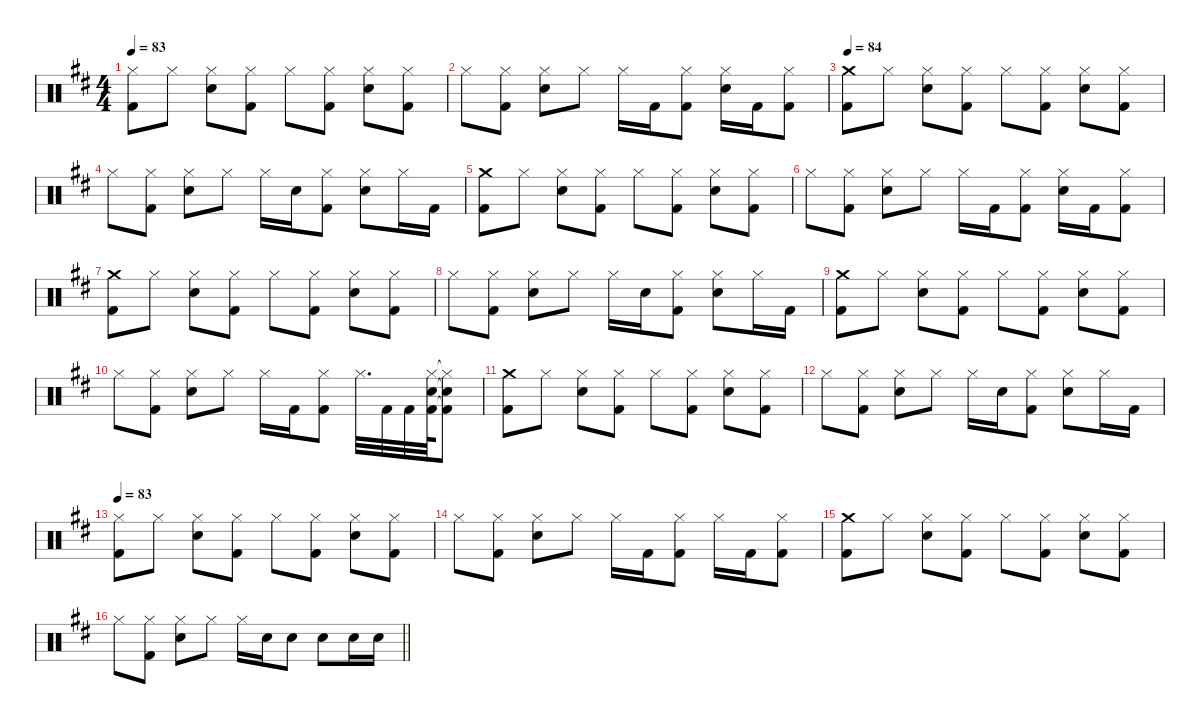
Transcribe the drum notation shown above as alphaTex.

\defaultSystemsLayout 4
\hideDynamics
\bracketExtendMode nobrackets
\singleTrackTrackNamePolicy hidden
\multiTrackTrackNamePolicy hidden
\otherSystemsTrackNameOrientation horizontal
\track ("Drumkit" "Drums") {defaultSystemsLayout 4 instrument percussion}
\staff {score}
\articulation defaults
\ts (4 4)
\tempo 83
\clef neutral
\ks d
("Kick (hit) 2"{acc forcenatural} "Hi-Hat (closed)"{acc forcenatural}).8{dy f beam Down} "Hi-Hat (closed)"{acc forcenatural}.8{beam Down} ("Snare (hit) 2"{acc forcenatural} "Hi-Hat (closed)"{acc forcenatural}).8{beam Down} ("Kick (hit) 2"{acc forcenatural} "Hi-Hat (closed)"{acc forcenatural}).8{beam Down} "Hi-Hat (closed)"{acc forcenatural}.8{beam Down} ("Kick (hit) 2"{acc forcenatural} "Hi-Hat (closed)"{acc forcenatural}).8{beam Down} ("Snare (hit) 2"{acc forcenatural} "Hi-Hat (closed)"{acc forcenatural}).8{beam Down} ("Kick (hit) 2"{acc forcenatural} "Hi-Hat (closed)"{acc forcenatural}).8{beam Down} |
"Hi-Hat (closed)"{acc forcenatural}.8{beam Down} ("Kick (hit) 2"{acc forcenatural} "Hi-Hat (closed)"{acc forcenatural}).8{beam Down} ("Snare (hit) 2"{acc forcenatural} "Hi-Hat (closed)"{acc forcenatural}).8{beam Down} "Hi-Hat (closed)"{acc forcenatural}.8{beam Down} "Hi-Hat (closed)"{acc forcenatural}.16{beam Down} "Kick (hit) 2"{acc forcenatural}.16{beam Down} ("Kick (hit) 2"{acc forcenatural} "Hi-Hat (closed)"{acc forcenatural}).8{beam Down} ("Snare (hit) 2"{acc forcenatural} "Hi-Hat (closed)"{acc forcenatural}).16{beam Down} "Kick (hit) 2"{acc forcenatural}.16{beam Down} ("Kick (hit) 2"{acc forcenatural} "Hi-Hat (closed)"{acc forcenatural}).8{beam Down} |
\tempo 84
("Kick (hit) 2"{acc forcenatural} "Crash medium (hit)"{acc forcenatural}).8{beam Down} "Hi-Hat (closed)"{acc forcenatural}.8{beam Down} ("Snare (hit) 2"{acc forcenatural} "Hi-Hat (closed)"{acc forcenatural}).8{beam Down} ("Kick (hit) 2"{acc forcenatural} "Hi-Hat (closed)"{acc forcenatural}).8{beam Down} "Hi-Hat (closed)"{acc forcenatural}.8{beam Down} ("Kick (hit) 2"{acc forcenatural} "Hi-Hat (closed)"{acc forcenatural}).8{beam Down} ("Snare (hit) 2"{acc forcenatural} "Hi-Hat (closed)"{acc forcenatural}).8{beam Down} ("Kick (hit) 2"{acc forcenatural} "Hi-Hat (closed)"{acc forcenatural}).8{beam Down} |
"Hi-Hat (closed)"{acc forcenatural}.8{beam Down} ("Kick (hit) 2"{acc forcenatural} "Hi-Hat (closed)"{acc forcenatural}).8{beam Down} ("Snare (hit) 2"{acc forcenatural} "Hi-Hat (closed)"{acc forcenatural}).8{beam Down} "Hi-Hat (closed)"{acc forcenatural}.8{beam Down} "Hi-Hat (closed)"{acc forcenatural}.16{beam Down} "Snare (hit) 2"{acc forcenatural}.16{beam Down} ("Kick (hit) 2"{acc forcenatural} "Hi-Hat (closed)"{acc forcenatural}).8{beam Down} ("Snare (hit) 2"{acc forcenatural} "Hi-Hat (closed)"{acc forcenatural}).8{beam Down} "Hi-Hat (closed)"{acc forcenatural}.16{beam Down} "Kick (hit) 2"{acc forcenatural}.16{beam Down} |
("Kick (hit) 2"{acc forcenatural} "Crash medium (hit)"{acc forcenatural}).8{beam Down} "Hi-Hat (closed)"{acc forcenatural}.8{beam Down} ("Snare (hit) 2"{acc forcenatural} "Hi-Hat (closed)"{acc forcenatural}).8{beam Down} ("Kick (hit) 2"{acc forcenatural} "Hi-Hat (closed)"{acc forcenatural}).8{beam Down} "Hi-Hat (closed)"{acc forcenatural}.8{beam Down} ("Kick (hit) 2"{acc forcenatural} "Hi-Hat (closed)"{acc forcenatural}).8{beam Down} ("Snare (hit) 2"{acc forcenatural} "Hi-Hat (closed)"{acc forcenatural}).8{beam Down} ("Kick (hit) 2"{acc forcenatural} "Hi-Hat (closed)"{acc forcenatural}).8{beam Down} |
"Hi-Hat (closed)"{acc forcenatural}.8{beam Down} ("Kick (hit) 2"{acc forcenatural} "Hi-Hat (closed)"{acc forcenatural}).8{beam Down} ("Snare (hit) 2"{acc forcenatural} "Hi-Hat (closed)"{acc forcenatural}).8{beam Down} "Hi-Hat (closed)"{acc forcenatural}.8{beam Down} "Hi-Hat (closed)"{acc forcenatural}.16{beam Down} "Kick (hit) 2"{acc forcenatural}.16{beam Down} ("Kick (hit) 2"{acc forcenatural} "Hi-Hat (closed)"{acc forcenatural}).8{beam Down} ("Snare (hit) 2"{acc forcenatural} "Hi-Hat (closed)"{acc forcenatural}).16{beam Down} "Kick (hit) 2"{acc forcenatural}.16{beam Down} ("Kick (hit) 2"{acc forcenatural} "Hi-Hat (closed)"{acc forcenatural}).8{beam Down} |
("Kick (hit) 2"{acc forcenatural} "Crash medium (hit)"{acc forcenatural}).8{beam Down} "Hi-Hat (closed)"{acc forcenatural}.8{beam Down} ("Snare (hit) 2"{acc forcenatural} "Hi-Hat (closed)"{acc forcenatural}).8{beam Down} ("Kick (hit) 2"{acc forcenatural} "Hi-Hat (closed)"{acc forcenatural}).8{beam Down} "Hi-Hat (closed)"{acc forcenatural}.8{beam Down} ("Kick (hit) 2"{acc forcenatural} "Hi-Hat (closed)"{acc forcenatural}).8{beam Down} ("Snare (hit) 2"{acc forcenatural} "Hi-Hat (closed)"{acc forcenatural}).8{beam Down} ("Kick (hit) 2"{acc forcenatural} "Hi-Hat (closed)"{acc forcenatural}).8{beam Down} |
"Hi-Hat (closed)"{acc forcenatural}.8{beam Down} ("Kick (hit) 2"{acc forcenatural} "Hi-Hat (closed)"{acc forcenatural}).8{beam Down} ("Snare (hit) 2"{acc forcenatural} "Hi-Hat (closed)"{acc forcenatural}).8{beam Down} "Hi-Hat (closed)"{acc forcenatural}.8{beam Down} "Hi-Hat (closed)"{acc forcenatural}.16{beam Down} "Snare (hit) 2"{acc forcenatural}.16{beam Down} ("Kick (hit) 2"{acc forcenatural} "Hi-Hat (closed)"{acc forcenatural}).8{beam Down} ("Snare (hit) 2"{acc forcenatural} "Hi-Hat (closed)"{acc forcenatural}).8{beam Down} "Hi-Hat (closed)"{acc forcenatural}.16{beam Down} "Kick (hit) 2"{acc forcenatural}.16{beam Down} |
("Kick (hit) 2"{acc forcenatural} "Crash medium (hit)"{acc forcenatural}).8{beam Down} "Hi-Hat (closed)"{acc forcenatural}.8{beam Down} ("Snare (hit) 2"{acc forcenatural} "Hi-Hat (closed)"{acc forcenatural}).8{beam Down} ("Kick (hit) 2"{acc forcenatural} "Hi-Hat (closed)"{acc forcenatural}).8{beam Down} "Hi-Hat (closed)"{acc forcenatural}.8{beam Down} ("Kick (hit) 2"{acc forcenatural} "Hi-Hat (closed)"{acc forcenatural}).8{beam Down} ("Snare (hit) 2"{acc forcenatural} "Hi-Hat (closed)"{acc forcenatural}).8{beam Down} ("Kick (hit) 2"{acc forcenatural} "Hi-Hat (closed)"{acc forcenatural}).8{beam Down} |
"Hi-Hat (closed)"{acc forcenatural}.8{beam Down} ("Kick (hit) 2"{acc forcenatural} "Hi-Hat (closed)"{acc forcenatural}).8{beam Down} ("Snare (hit) 2"{acc forcenatural} "Hi-Hat (closed)"{acc forcenatural}).8{beam Down} "Hi-Hat (closed)"{acc forcenatural}.8{beam Down} "Hi-Hat (closed)"{acc forcenatural}.16{beam Down} "Kick (hit) 2"{acc forcenatural}.16{beam Down} ("Kick (hit) 2"{acc forcenatural} "Hi-Hat (closed)"{acc forcenatural}).8{beam Down} "Hi-Hat (closed)"{acc forcenatural}.32{d beam Down} "Kick (hit) 2"{acc forcenatural}.32{beam Down} "Kick (hit) 2"{acc forcenatural}.32{beam Down} ("Kick (hit) 2"{acc forcenatural} "Snare (hit) 2"{acc forcenatural} "Hi-Hat (closed)"{acc forcenatural}).64{beam Down} ("Kick (hit) 2"{t acc forcenatural} "Snare (hit) 2"{t acc forcenatural} "Hi-Hat (closed)"{t acc forcenatural}).8{beam Down} |
("Kick (hit) 2"{acc forcenatural} "Crash medium (hit)"{acc forcenatural}).8{beam Down} "Hi-Hat (closed)"{acc forcenatural}.8{beam Down} ("Snare (hit) 2"{acc forcenatural} "Hi-Hat (closed)"{acc forcenatural}).8{beam Down} ("Kick (hit) 2"{acc forcenatural} "Hi-Hat (closed)"{acc forcenatural}).8{beam Down} "Hi-Hat (closed)"{acc forcenatural}.8{beam Down} ("Kick (hit) 2"{acc forcenatural} "Hi-Hat (closed)"{acc forcenatural}).8{beam Down} ("Snare (hit) 2"{acc forcenatural} "Hi-Hat (closed)"{acc forcenatural}).8{beam Down} ("Kick (hit) 2"{acc forcenatural} "Hi-Hat (closed)"{acc forcenatural}).8{beam Down} |
"Hi-Hat (closed)"{acc forcenatural}.8{beam Down} ("Kick (hit) 2"{acc forcenatural} "Hi-Hat (closed)"{acc forcenatural}).8{beam Down} ("Snare (hit) 2"{acc forcenatural} "Hi-Hat (closed)"{acc forcenatural}).8{beam Down} "Hi-Hat (closed)"{acc forcenatural}.8{beam Down} "Hi-Hat (closed)"{acc forcenatural}.16{beam Down} "Snare (hit) 2"{acc forcenatural}.16{beam Down} ("Kick (hit) 2"{acc forcenatural} "Hi-Hat (closed)"{acc forcenatural}).8{beam Down} ("Snare (hit) 2"{acc forcenatural} "Hi-Hat (closed)"{acc forcenatural}).8{beam Down} "Hi-Hat (closed)"{acc forcenatural}.16{beam Down} "Kick (hit) 2"{acc forcenatural}.16{beam Down} |
\tempo 83
("Kick (hit) 2"{acc forcenatural} "Hi-Hat (closed)"{acc forcenatural}).8{beam Down} "Hi-Hat (closed)"{acc forcenatural}.8{beam Down} ("Snare (hit) 2"{acc forcenatural} "Hi-Hat (closed)"{acc forcenatural}).8{beam Down} ("Kick (hit) 2"{acc forcenatural} "Hi-Hat (closed)"{acc forcenatural}).8{beam Down} "Hi-Hat (closed)"{acc forcenatural}.8{beam Down} ("Kick (hit) 2"{acc forcenatural} "Hi-Hat (closed)"{acc forcenatural}).8{beam Down} ("Snare (hit) 2"{acc forcenatural} "Hi-Hat (closed)"{acc forcenatural}).8{beam Down} ("Kick (hit) 2"{acc forcenatural} "Hi-Hat (closed)"{acc forcenatural}).8{beam Down} |
"Hi-Hat (closed)"{acc forcenatural}.8{beam Down} ("Kick (hit) 2"{acc forcenatural} "Hi-Hat (closed)"{acc forcenatural}).8{beam Down} ("Snare (hit) 2"{acc forcenatural} "Hi-Hat (closed)"{acc forcenatural}).8{beam Down} "Hi-Hat (closed)"{acc forcenatural}.8{beam Down} "Hi-Hat (closed)"{acc forcenatural}.16{beam Down} "Kick (hit) 2"{acc forcenatural}.16{beam Down} ("Kick (hit) 2"{acc forcenatural} "Hi-Hat (closed)"{acc forcenatural}).8{beam Down} "Hi-Hat (closed)"{acc forcenatural}.16{beam Down} "Kick (hit) 2"{acc forcenatural}.16{beam Down} ("Kick (hit) 2"{acc forcenatural} "Hi-Hat (closed)"{acc forcenatural}).8{beam Down} |
("Kick (hit) 2"{acc forcenatural} "Crash medium (hit)"{acc forcenatural}).8{beam Down} "Hi-Hat (closed)"{acc forcenatural}.8{beam Down} ("Snare (hit) 2"{acc forcenatural} "Hi-Hat (closed)"{acc forcenatural}).8{beam Down} ("Kick (hit) 2"{acc forcenatural} "Hi-Hat (closed)"{acc forcenatural}).8{beam Down} "Hi-Hat (closed)"{acc forcenatural}.8{beam Down} ("Kick (hit) 2"{acc forcenatural} "Hi-Hat (closed)"{acc forcenatural}).8{beam Down} ("Snare (hit) 2"{acc forcenatural} "Hi-Hat (closed)"{acc forcenatural}).8{beam Down} ("Kick (hit) 2"{acc forcenatural} "Hi-Hat (closed)"{acc forcenatural}).8{beam Down} |
\barLineRight lightlight "Hi-Hat (closed)"{acc forcenatural}.8{beam Down}
("Kick (hit) 2"{acc forcenatural} "Hi-Hat (closed)"{acc forcenatural}).8{beam Down} ("Snare (hit) 2"{acc forcenatural} "Hi-Hat (closed)"{acc forcenatural}).8{beam Down} "Hi-Hat (closed)"{acc forcenatural}.8{beam Down} "Hi-Hat (closed)"{acc forcenatural}.16{beam Down} "Snare (hit) 2"{acc forcenatural}.16{beam Down} "Snare (hit) 2"{acc forcenatural}.8{beam Down} "Snare (hit) 2"{acc forcenatural}.8{beam Down} "Snare (hit) 2"{acc forcenatural}.16{beam Down} "Snare (hit) 2"{acc forcenatural}.16{beam Down}
